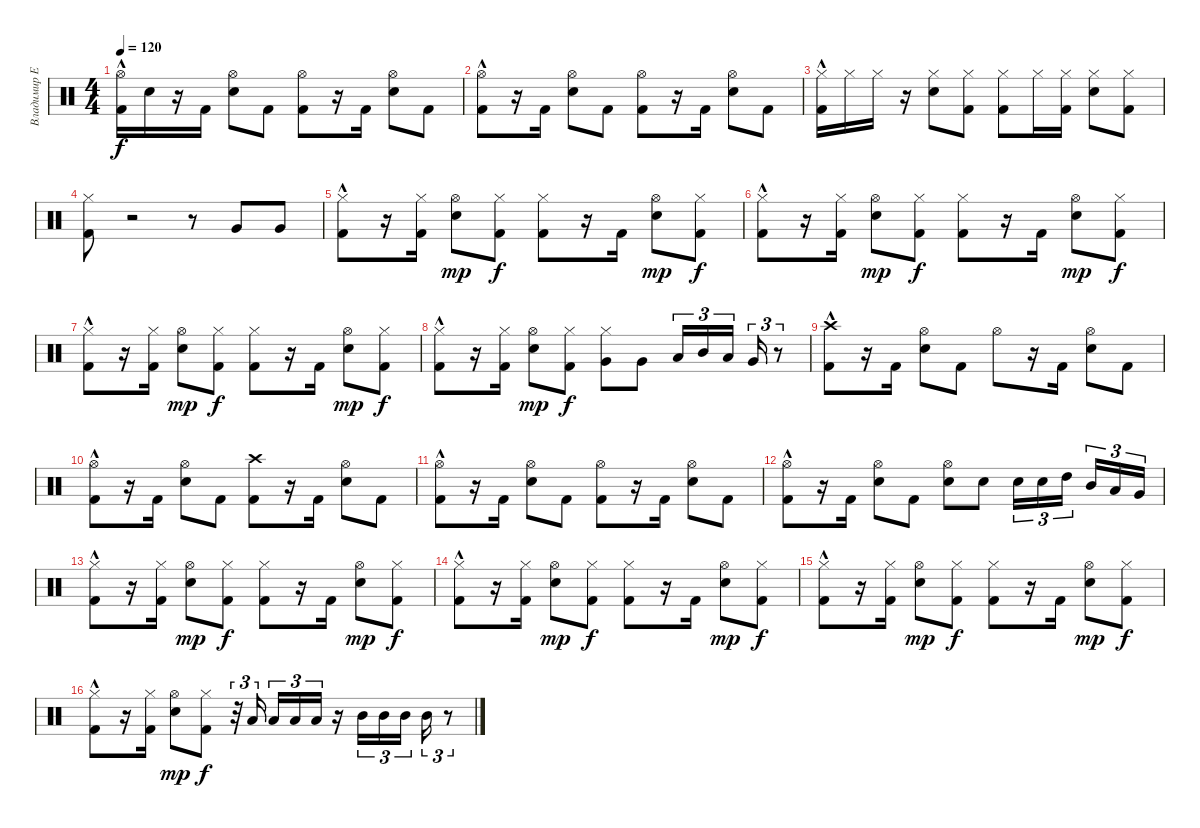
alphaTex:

\track ("Владимир Ермаков" "Владимир Е") {instrument percussion}
\staff {score}
\articulation defaults
\ts (4 4)
\tempo 120
\clef neutral
\ks c
("Hi-Hat (open)" "Kick (hit) 2"{hac}).16{dy f} "Electric Snare (hit)".16 r.16 "Kick (hit) 2".16 ("Hi-Hat (open)" "Electric Snare (hit)").8 "Kick (hit) 2".8 ("Hi-Hat (open)" "Kick (hit) 2").8 r.16 "Kick (hit) 2".16 ("Hi-Hat (open)" "Electric Snare (hit)").8 "Kick (hit) 2".8 |
("Hi-Hat (open)" "Kick (hit) 2"{hac}).8 r.16 "Kick (hit) 2".16 ("Hi-Hat (open)" "Electric Snare (hit)").8 "Kick (hit) 2".8 ("Hi-Hat (open)" "Kick (hit) 2").8 r.16 "Kick (hit) 2".16 ("Hi-Hat (open)" "Electric Snare (hit)").8 "Kick (hit) 2".8 |
("Hi-Hat (closed)" "Kick (hit) 2"{hac}).16 "Hi-Hat (closed)".16 "Hi-Hat (closed)".16 r.16 ("Hi-Hat (closed)" "Electric Snare (hit)").8 ("Hi-Hat (closed)" "Kick (hit) 2").8 ("Hi-Hat (closed)" "Kick (hit) 2").8 "Hi-Hat (closed)".16 ("Hi-Hat (closed)" "Kick (hit) 2").16 ("Hi-Hat (closed)" "Electric Snare (hit)").8 ("Hi-Hat (closed)" "Kick (hit) 2").8 |
("Hi-Hat (closed)" "Kick (hit) 2").8 r.2 r.8 "Very Low Tom (hit)".8 "Very Low Tom (hit)".8 |
("Hi-Hat (closed)" "Kick (hit) 2"{hac}).8 r.16 ("Hi-Hat (closed)" "Kick (hit) 2").16 ("Hi-Hat (open)" "Electric Snare (hit)").8{dy mp} ("Hi-Hat (closed)" "Kick (hit) 2").8{dy f} ("Hi-Hat (closed)" "Kick (hit) 2").8 r.16 "Kick (hit) 2".16 ("Hi-Hat (open)" "Electric Snare (hit)").8{dy mp} ("Hi-Hat (closed)" "Kick (hit) 2").8{dy f} |
("Hi-Hat (closed)" "Kick (hit) 2"{hac}).8 r.16 ("Hi-Hat (closed)" "Kick (hit) 2").16 ("Hi-Hat (open)" "Electric Snare (hit)").8{dy mp} ("Hi-Hat (closed)" "Kick (hit) 2").8{dy f} ("Hi-Hat (closed)" "Kick (hit) 2").8 r.16 "Kick (hit) 2".16 ("Hi-Hat (open)" "Electric Snare (hit)").8{dy mp} ("Hi-Hat (closed)" "Kick (hit) 2").8{dy f} |
("Hi-Hat (closed)" "Kick (hit) 2"{hac}).8 r.16 ("Hi-Hat (closed)" "Kick (hit) 2").16 ("Hi-Hat (open)" "Electric Snare (hit)").8{dy mp} ("Hi-Hat (closed)" "Kick (hit) 2").8{dy f} ("Hi-Hat (closed)" "Kick (hit) 2").8 r.16 "Kick (hit) 2".16 ("Hi-Hat (open)" "Electric Snare (hit)").8{dy mp} ("Hi-Hat (closed)" "Kick (hit) 2").8{dy f} |
("Hi-Hat (closed)" "Kick (hit) 2"{hac}).8 r.16 ("Hi-Hat (closed)" "Kick (hit) 2").16 ("Hi-Hat (open)" "Electric Snare (hit)").8{dy mp} ("Hi-Hat (closed)" "Kick (hit) 2").8{dy f} ("Hi-Hat (closed)" "Very Low Tom (hit)").8 "Very Low Tom (hit)".8 "Low Tom (hit)".16{tu (3 2)} "Mid Tom (hit)".16{tu (3 2)} "Low Tom (hit)".16{tu (3 2)} "Very Low Tom (hit)".16{tu (3 2)} r.8{tu (3 2)} |
("Crash high (hit)" "Kick (hit) 2"{hac}).8 r.16 "Kick (hit) 2".16 ("Hi-Hat (open)" "Electric Snare (hit)").8 "Kick (hit) 2".8 "Hi-Hat (open)".8 r.16 "Kick (hit) 2".16 ("Hi-Hat (open)" "Electric Snare (hit)").8 "Kick (hit) 2".8 |
("Hi-Hat (open)" "Kick (hit) 2"{hac}).8 r.16 "Kick (hit) 2".16 ("Hi-Hat (open)" "Electric Snare (hit)").8 "Kick (hit) 2".8 ("Crash high (hit)" "Kick (hit) 2").8 r.16 "Kick (hit) 2".16 ("Hi-Hat (open)" "Electric Snare (hit)").8 "Kick (hit) 2".8 |
("Hi-Hat (open)" "Kick (hit) 2"{hac}).8 r.16 "Kick (hit) 2".16 ("Hi-Hat (open)" "Electric Snare (hit)").8 "Kick (hit) 2".8 ("Hi-Hat (open)" "Kick (hit) 2").8 r.16 "Kick (hit) 2".16 ("Hi-Hat (open)" "Electric Snare (hit)").8 "Kick (hit) 2".8 |
("Hi-Hat (open)" "Kick (hit) 2"{hac}).8 r.16 "Kick (hit) 2".16 ("Hi-Hat (open)" "Electric Snare (hit)").8 "Kick (hit) 2".8 ("Hi-Hat (open)" "Electric Snare (hit)").8 "Electric Snare (hit)".8 "Electric Snare (hit)".16{tu (3 2)} "Electric Snare (hit)".16{tu (3 2)} "High Tom (hit)".16{tu (3 2)} "Mid Tom (hit)".16{tu (3 2)} "Low Tom (hit)".16{tu (3 2)} "Very Low Tom (hit)".16{tu (3 2)} |
("Hi-Hat (closed)" "Kick (hit) 2"{hac}).8 r.16 ("Hi-Hat (closed)" "Kick (hit) 2").16 ("Hi-Hat (open)" "Electric Snare (hit)").8{dy mp} ("Hi-Hat (closed)" "Kick (hit) 2").8{dy f} ("Hi-Hat (closed)" "Kick (hit) 2").8 r.16 "Kick (hit) 2".16 ("Hi-Hat (open)" "Electric Snare (hit)").8{dy mp} ("Hi-Hat (closed)" "Kick (hit) 2").8{dy f} |
("Hi-Hat (closed)" "Kick (hit) 2"{hac}).8 r.16 ("Hi-Hat (closed)" "Kick (hit) 2").16 ("Hi-Hat (open)" "Electric Snare (hit)").8{dy mp} ("Hi-Hat (closed)" "Kick (hit) 2").8{dy f} ("Hi-Hat (closed)" "Kick (hit) 2").8 r.16 "Kick (hit) 2".16 ("Hi-Hat (open)" "Electric Snare (hit)").8{dy mp} ("Hi-Hat (closed)" "Kick (hit) 2").8{dy f} |
("Hi-Hat (closed)" "Kick (hit) 2"{hac}).8 r.16 ("Hi-Hat (closed)" "Kick (hit) 2").16 ("Hi-Hat (open)" "Electric Snare (hit)").8{dy mp} ("Hi-Hat (closed)" "Kick (hit) 2").8{dy f} ("Hi-Hat (closed)" "Kick (hit) 2").8 r.16 "Kick (hit) 2".16 ("Hi-Hat (open)" "Electric Snare (hit)").8{dy mp} ("Hi-Hat (closed)" "Kick (hit) 2").8{dy f} |
("Hi-Hat (closed)" "Kick (hit) 2"{hac}).8 r.16 ("Hi-Hat (closed)" "Kick (hit) 2").16 ("Hi-Hat (open)" "Electric Snare (hit)").8{dy mp} ("Hi-Hat (closed)" "Kick (hit) 2").8{dy f} r.32{tu (3 2)} "Low Tom (hit)".16{tu (3 2)} "Low Tom (hit)".16{tu (3 2)} "Low Tom (hit)".16{tu (3 2)} "Low Tom (hit)".16{tu (3 2)} r.16 "Mid Tom (hit)".16{tu (3 2)} "Mid Tom (hit)".16{tu (3 2)} "Mid Tom (hit)".16{tu (3 2)} "Mid Tom (hit)".16{tu (3 2)} r.8{tu (3 2)}
